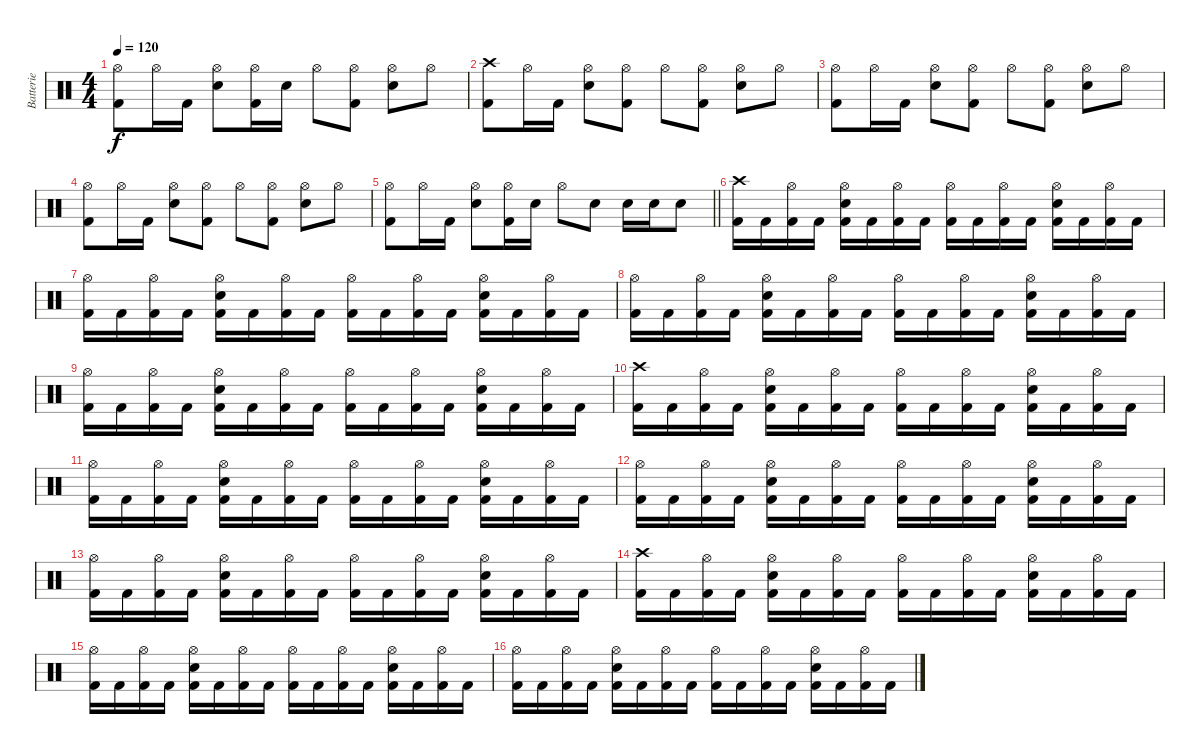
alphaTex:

\track ("Batterie" "Batterie") {instrument percussion}
\staff {score}
\articulation defaults
\ts (4 4)
\tempo 120
\clef neutral
\ks c
("Hi-Hat (open)" "Kick (hit) 2").8{dy f} "Hi-Hat (open)".16 "Kick (hit) 2".16 ("Hi-Hat (open)" "Snare (hit) 2").8 ("Hi-Hat (open)" "Kick (hit) 2").16 "Snare (hit) 2".16 "Hi-Hat (open)".8 ("Hi-Hat (open)" "Kick (hit) 2").8 ("Hi-Hat (open)" "Snare (hit) 2").8 "Hi-Hat (open)".8 |
("Crash high (hit)" "Kick (hit) 2").8 "Hi-Hat (open)".16 "Kick (hit) 2".16 ("Hi-Hat (open)" "Snare (hit) 2").8 ("Hi-Hat (open)" "Kick (hit) 2").8 "Hi-Hat (open)".8 ("Hi-Hat (open)" "Kick (hit) 2").8 ("Hi-Hat (open)" "Snare (hit) 2").8 "Hi-Hat (open)".8 |
("Hi-Hat (open)" "Kick (hit) 2").8 "Hi-Hat (open)".16 "Kick (hit) 2".16 ("Hi-Hat (open)" "Snare (hit) 2").8 ("Hi-Hat (open)" "Kick (hit) 2").8 "Hi-Hat (open)".8 ("Hi-Hat (open)" "Kick (hit) 2").8 ("Hi-Hat (open)" "Snare (hit) 2").8 "Hi-Hat (open)".8 |
("Hi-Hat (open)" "Kick (hit) 2").8 "Hi-Hat (open)".16 "Kick (hit) 2".16 ("Hi-Hat (open)" "Snare (hit) 2").8 ("Hi-Hat (open)" "Kick (hit) 2").8 "Hi-Hat (open)".8 ("Hi-Hat (open)" "Kick (hit) 2").8 ("Hi-Hat (open)" "Snare (hit) 2").8 "Hi-Hat (open)".8 |
\barLineRight lightlight
("Hi-Hat (open)" "Kick (hit) 2").8 "Hi-Hat (open)".16 "Kick (hit) 2".16 ("Hi-Hat (open)" "Snare (hit) 2").8 ("Hi-Hat (open)" "Kick (hit) 2").16 "Snare (hit) 2".16 "Hi-Hat (open)".8 "Snare (hit) 2".8 "Snare (hit) 2".16 "Snare (hit) 2".16 "Snare (hit) 2".8 |
("Crash high (hit)" "Kick (hit) 2").16 "Kick (hit) 2".16 ("Hi-Hat (open)" "Kick (hit) 2").16 "Kick (hit) 2".16 ("Hi-Hat (open)" "Snare (hit) 2" "Kick (hit) 2").16 "Kick (hit) 2".16 ("Hi-Hat (open)" "Kick (hit) 2").16 "Kick (hit) 2".16 ("Hi-Hat (open)" "Kick (hit) 2").16 "Kick (hit) 2".16 ("Hi-Hat (open)" "Kick (hit) 2").16 "Kick (hit) 2".16 ("Hi-Hat (open)" "Snare (hit) 2" "Kick (hit) 2").16 "Kick (hit) 2".16 ("Hi-Hat (open)" "Kick (hit) 2").16 "Kick (hit) 2".16 |
("Hi-Hat (open)" "Kick (hit) 2").16 "Kick (hit) 2".16 ("Hi-Hat (open)" "Kick (hit) 2").16 "Kick (hit) 2".16 ("Hi-Hat (open)" "Snare (hit) 2" "Kick (hit) 2").16 "Kick (hit) 2".16 ("Hi-Hat (open)" "Kick (hit) 2").16 "Kick (hit) 2".16 ("Hi-Hat (open)" "Kick (hit) 2").16 "Kick (hit) 2".16 ("Hi-Hat (open)" "Kick (hit) 2").16 "Kick (hit) 2".16 ("Hi-Hat (open)" "Snare (hit) 2" "Kick (hit) 2").16 "Kick (hit) 2".16 ("Hi-Hat (open)" "Kick (hit) 2").16 "Kick (hit) 2".16 |
("Hi-Hat (open)" "Kick (hit) 2").16 "Kick (hit) 2".16 ("Hi-Hat (open)" "Kick (hit) 2").16 "Kick (hit) 2".16 ("Hi-Hat (open)" "Snare (hit) 2" "Kick (hit) 2").16 "Kick (hit) 2".16 ("Hi-Hat (open)" "Kick (hit) 2").16 "Kick (hit) 2".16 ("Hi-Hat (open)" "Kick (hit) 2").16 "Kick (hit) 2".16 ("Hi-Hat (open)" "Kick (hit) 2").16 "Kick (hit) 2".16 ("Hi-Hat (open)" "Snare (hit) 2" "Kick (hit) 2").16 "Kick (hit) 2".16 ("Hi-Hat (open)" "Kick (hit) 2").16 "Kick (hit) 2".16 |
("Hi-Hat (open)" "Kick (hit) 2").16 "Kick (hit) 2".16 ("Hi-Hat (open)" "Kick (hit) 2").16 "Kick (hit) 2".16 ("Hi-Hat (open)" "Snare (hit) 2" "Kick (hit) 2").16 "Kick (hit) 2".16 ("Hi-Hat (open)" "Kick (hit) 2").16 "Kick (hit) 2".16 ("Hi-Hat (open)" "Kick (hit) 2").16 "Kick (hit) 2".16 ("Hi-Hat (open)" "Kick (hit) 2").16 "Kick (hit) 2".16 ("Hi-Hat (open)" "Snare (hit) 2" "Kick (hit) 2").16 "Kick (hit) 2".16 ("Hi-Hat (open)" "Kick (hit) 2").16 "Kick (hit) 2".16 |
("Crash high (hit)" "Kick (hit) 2").16 "Kick (hit) 2".16 ("Hi-Hat (open)" "Kick (hit) 2").16 "Kick (hit) 2".16 ("Hi-Hat (open)" "Snare (hit) 2" "Kick (hit) 2").16 "Kick (hit) 2".16 ("Hi-Hat (open)" "Kick (hit) 2").16 "Kick (hit) 2".16 ("Hi-Hat (open)" "Kick (hit) 2").16 "Kick (hit) 2".16 ("Hi-Hat (open)" "Kick (hit) 2").16 "Kick (hit) 2".16 ("Hi-Hat (open)" "Snare (hit) 2" "Kick (hit) 2").16 "Kick (hit) 2".16 ("Hi-Hat (open)" "Kick (hit) 2").16 "Kick (hit) 2".16 |
("Hi-Hat (open)" "Kick (hit) 2").16 "Kick (hit) 2".16 ("Hi-Hat (open)" "Kick (hit) 2").16 "Kick (hit) 2".16 ("Hi-Hat (open)" "Snare (hit) 2" "Kick (hit) 2").16 "Kick (hit) 2".16 ("Hi-Hat (open)" "Kick (hit) 2").16 "Kick (hit) 2".16 ("Hi-Hat (open)" "Kick (hit) 2").16 "Kick (hit) 2".16 ("Hi-Hat (open)" "Kick (hit) 2").16 "Kick (hit) 2".16 ("Hi-Hat (open)" "Snare (hit) 2" "Kick (hit) 2").16 "Kick (hit) 2".16 ("Hi-Hat (open)" "Kick (hit) 2").16 "Kick (hit) 2".16 |
("Hi-Hat (open)" "Kick (hit) 2").16 "Kick (hit) 2".16 ("Hi-Hat (open)" "Kick (hit) 2").16 "Kick (hit) 2".16 ("Hi-Hat (open)" "Snare (hit) 2" "Kick (hit) 2").16 "Kick (hit) 2".16 ("Hi-Hat (open)" "Kick (hit) 2").16 "Kick (hit) 2".16 ("Hi-Hat (open)" "Kick (hit) 2").16 "Kick (hit) 2".16 ("Hi-Hat (open)" "Kick (hit) 2").16 "Kick (hit) 2".16 ("Hi-Hat (open)" "Snare (hit) 2" "Kick (hit) 2").16 "Kick (hit) 2".16 ("Hi-Hat (open)" "Kick (hit) 2").16 "Kick (hit) 2".16 |
("Hi-Hat (open)" "Kick (hit) 2").16 "Kick (hit) 2".16 ("Hi-Hat (open)" "Kick (hit) 2").16 "Kick (hit) 2".16 ("Hi-Hat (open)" "Snare (hit) 2" "Kick (hit) 2").16 "Kick (hit) 2".16 ("Hi-Hat (open)" "Kick (hit) 2").16 "Kick (hit) 2".16 ("Hi-Hat (open)" "Kick (hit) 2").16 "Kick (hit) 2".16 ("Hi-Hat (open)" "Kick (hit) 2").16 "Kick (hit) 2".16 ("Hi-Hat (open)" "Snare (hit) 2" "Kick (hit) 2").16 "Kick (hit) 2".16 ("Hi-Hat (open)" "Kick (hit) 2").16 "Kick (hit) 2".16 |
("Crash high (hit)" "Kick (hit) 2").16 "Kick (hit) 2".16 ("Hi-Hat (open)" "Kick (hit) 2").16 "Kick (hit) 2".16 ("Hi-Hat (open)" "Snare (hit) 2" "Kick (hit) 2").16 "Kick (hit) 2".16 ("Hi-Hat (open)" "Kick (hit) 2").16 "Kick (hit) 2".16 ("Hi-Hat (open)" "Kick (hit) 2").16 "Kick (hit) 2".16 ("Hi-Hat (open)" "Kick (hit) 2").16 "Kick (hit) 2".16 ("Hi-Hat (open)" "Snare (hit) 2" "Kick (hit) 2").16 "Kick (hit) 2".16 ("Hi-Hat (open)" "Kick (hit) 2").16 "Kick (hit) 2".16 |
("Hi-Hat (open)" "Kick (hit) 2").16 "Kick (hit) 2".16 ("Hi-Hat (open)" "Kick (hit) 2").16 "Kick (hit) 2".16 ("Hi-Hat (open)" "Snare (hit) 2" "Kick (hit) 2").16 "Kick (hit) 2".16 ("Hi-Hat (open)" "Kick (hit) 2").16 "Kick (hit) 2".16 ("Hi-Hat (open)" "Kick (hit) 2").16 "Kick (hit) 2".16 ("Hi-Hat (open)" "Kick (hit) 2").16 "Kick (hit) 2".16 ("Hi-Hat (open)" "Snare (hit) 2" "Kick (hit) 2").16 "Kick (hit) 2".16 ("Hi-Hat (open)" "Kick (hit) 2").16 "Kick (hit) 2".16 |
("Hi-Hat (open)" "Kick (hit) 2").16 "Kick (hit) 2".16 ("Hi-Hat (open)" "Kick (hit) 2").16 "Kick (hit) 2".16 ("Hi-Hat (open)" "Snare (hit) 2" "Kick (hit) 2").16 "Kick (hit) 2".16 ("Hi-Hat (open)" "Kick (hit) 2").16 "Kick (hit) 2".16 ("Hi-Hat (open)" "Kick (hit) 2").16 "Kick (hit) 2".16 ("Hi-Hat (open)" "Kick (hit) 2").16 "Kick (hit) 2".16 ("Hi-Hat (open)" "Snare (hit) 2" "Kick (hit) 2").16 "Kick (hit) 2".16 ("Hi-Hat (open)" "Kick (hit) 2").16 "Kick (hit) 2".16
